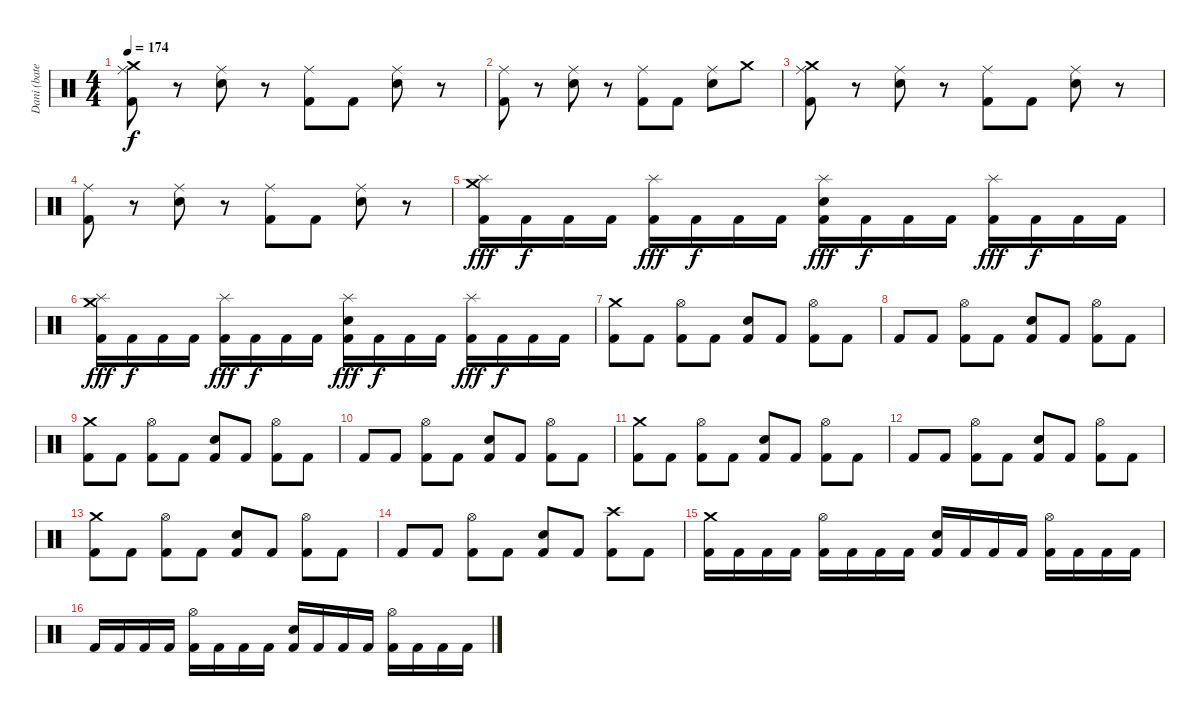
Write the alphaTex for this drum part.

\track ("Dani (batería)" "Dani (bate") {instrument percussion}
\staff {score}
\articulation defaults
\ts (4 4)
\tempo 174
\clef neutral
\ks c
("Crash medium (hit)" "Ride (middle)" "Kick (hit) 2").8{dy f} r.8 ("Ride (middle)" "Electric Snare (hit)").8 r.8 ("Ride (middle)" "Kick (hit) 2").8 "Kick (hit) 2".8 ("Ride (middle)" "Electric Snare (hit)").8 r.8 |
("Ride (middle)" "Kick (hit) 2").8 r.8 ("Ride (middle)" "Electric Snare (hit)").8 r.8 ("Ride (middle)" "Kick (hit) 2").8 "Kick (hit) 2".8 ("Ride (middle)" "Electric Snare (hit)").8 "Crash medium (hit)".8 |
("Crash medium (hit)" "Ride (middle)" "Kick (hit) 2").8 r.8 ("Ride (middle)" "Electric Snare (hit)").8 r.8 ("Ride (middle)" "Kick (hit) 2").8 "Kick (hit) 2".8 ("Ride (middle)" "Electric Snare (hit)").8 r.8 |
("Ride (middle)" "Kick (hit) 2").8 r.8 ("Ride (middle)" "Electric Snare (hit)").8 r.8 ("Ride (middle)" "Kick (hit) 2").8 "Kick (hit) 2".8 ("Ride (middle)" "Electric Snare (hit)").8 r.8 |
("Crash medium (hit)" "Splash (hit)" "Kick (hit) 2").16{dy fff} "Kick (hit) 2".16{dy f} "Kick (hit) 2".16 "Kick (hit) 2".16 ("Splash (hit)" "Kick (hit) 2").16{dy fff} "Kick (hit) 2".16{dy f} "Kick (hit) 2".16 "Kick (hit) 2".16 ("Splash (hit)" "Electric Snare (hit)" "Kick (hit) 2").16{dy fff} "Kick (hit) 2".16{dy f} "Kick (hit) 2".16 "Kick (hit) 2".16 ("Splash (hit)" "Kick (hit) 2").16{dy fff} "Kick (hit) 2".16{dy f} "Kick (hit) 2".16 "Kick (hit) 2".16 |
("Crash medium (hit)" "Splash (hit)" "Kick (hit) 2").16{dy fff} "Kick (hit) 2".16{dy f} "Kick (hit) 2".16 "Kick (hit) 2".16 ("Splash (hit)" "Kick (hit) 2").16{dy fff} "Kick (hit) 2".16{dy f} "Kick (hit) 2".16 "Kick (hit) 2".16 ("Splash (hit)" "Electric Snare (hit)" "Kick (hit) 2").16{dy fff} "Kick (hit) 2".16{dy f} "Kick (hit) 2".16 "Kick (hit) 2".16 ("Splash (hit)" "Kick (hit) 2").16{dy fff} "Kick (hit) 2".16{dy f} "Kick (hit) 2".16 "Kick (hit) 2".16 |
("Crash medium (hit)" "Kick (hit) 2").8 "Kick (hit) 2".8 ("Hi-Hat (open)" "Kick (hit) 2").8 "Kick (hit) 2".8 ("Electric Snare (hit)" "Kick (hit) 2").8 "Kick (hit) 2".8 ("Hi-Hat (open)" "Kick (hit) 2").8 "Kick (hit) 2".8 |
"Kick (hit) 2".8 "Kick (hit) 2".8 ("Hi-Hat (open)" "Kick (hit) 2").8 "Kick (hit) 2".8 ("Electric Snare (hit)" "Kick (hit) 2").8 "Kick (hit) 2".8 ("Hi-Hat (open)" "Kick (hit) 2").8 "Kick (hit) 2".8 |
("Crash medium (hit)" "Kick (hit) 2").8 "Kick (hit) 2".8 ("Hi-Hat (open)" "Kick (hit) 2").8 "Kick (hit) 2".8 ("Electric Snare (hit)" "Kick (hit) 2").8 "Kick (hit) 2".8 ("Hi-Hat (open)" "Kick (hit) 2").8 "Kick (hit) 2".8 |
"Kick (hit) 2".8 "Kick (hit) 2".8 ("Hi-Hat (open)" "Kick (hit) 2").8 "Kick (hit) 2".8 ("Electric Snare (hit)" "Kick (hit) 2").8 "Kick (hit) 2".8 ("Hi-Hat (open)" "Kick (hit) 2").8 "Kick (hit) 2".8 |
("Crash medium (hit)" "Kick (hit) 2").8 "Kick (hit) 2".8 ("Hi-Hat (open)" "Kick (hit) 2").8 "Kick (hit) 2".8 ("Electric Snare (hit)" "Kick (hit) 2").8 "Kick (hit) 2".8 ("Hi-Hat (open)" "Kick (hit) 2").8 "Kick (hit) 2".8 |
"Kick (hit) 2".8 "Kick (hit) 2".8 ("Hi-Hat (open)" "Kick (hit) 2").8 "Kick (hit) 2".8 ("Electric Snare (hit)" "Kick (hit) 2").8 "Kick (hit) 2".8 ("Hi-Hat (open)" "Kick (hit) 2").8 "Kick (hit) 2".8 |
("Crash medium (hit)" "Kick (hit) 2").8 "Kick (hit) 2".8 ("Hi-Hat (open)" "Kick (hit) 2").8 "Kick (hit) 2".8 ("Electric Snare (hit)" "Kick (hit) 2").8 "Kick (hit) 2".8 ("Hi-Hat (open)" "Kick (hit) 2").8 "Kick (hit) 2".8 |
"Kick (hit) 2".8 "Kick (hit) 2".8 ("Hi-Hat (open)" "Kick (hit) 2").8 "Kick (hit) 2".8 ("Electric Snare (hit)" "Kick (hit) 2").8 "Kick (hit) 2".8 ("Crash high (hit)" "Kick (hit) 2").8 "Kick (hit) 2".8 |
("Crash medium (hit)" "Kick (hit) 2").16 "Kick (hit) 2".16 "Kick (hit) 2".16 "Kick (hit) 2".16 ("Hi-Hat (open)" "Kick (hit) 2").16 "Kick (hit) 2".16 "Kick (hit) 2".16 "Kick (hit) 2".16 ("Electric Snare (hit)" "Kick (hit) 2").16 "Kick (hit) 2".16 "Kick (hit) 2".16 "Kick (hit) 2".16 ("Hi-Hat (open)" "Kick (hit) 2").16 "Kick (hit) 2".16 "Kick (hit) 2".16 "Kick (hit) 2".16 |
"Kick (hit) 2".16 "Kick (hit) 2".16 "Kick (hit) 2".16 "Kick (hit) 2".16 ("Hi-Hat (open)" "Kick (hit) 2").16 "Kick (hit) 2".16 "Kick (hit) 2".16 "Kick (hit) 2".16 ("Electric Snare (hit)" "Kick (hit) 2").16 "Kick (hit) 2".16 "Kick (hit) 2".16 "Kick (hit) 2".16 ("Hi-Hat (open)" "Kick (hit) 2").16 "Kick (hit) 2".16 "Kick (hit) 2".16 "Kick (hit) 2".16
